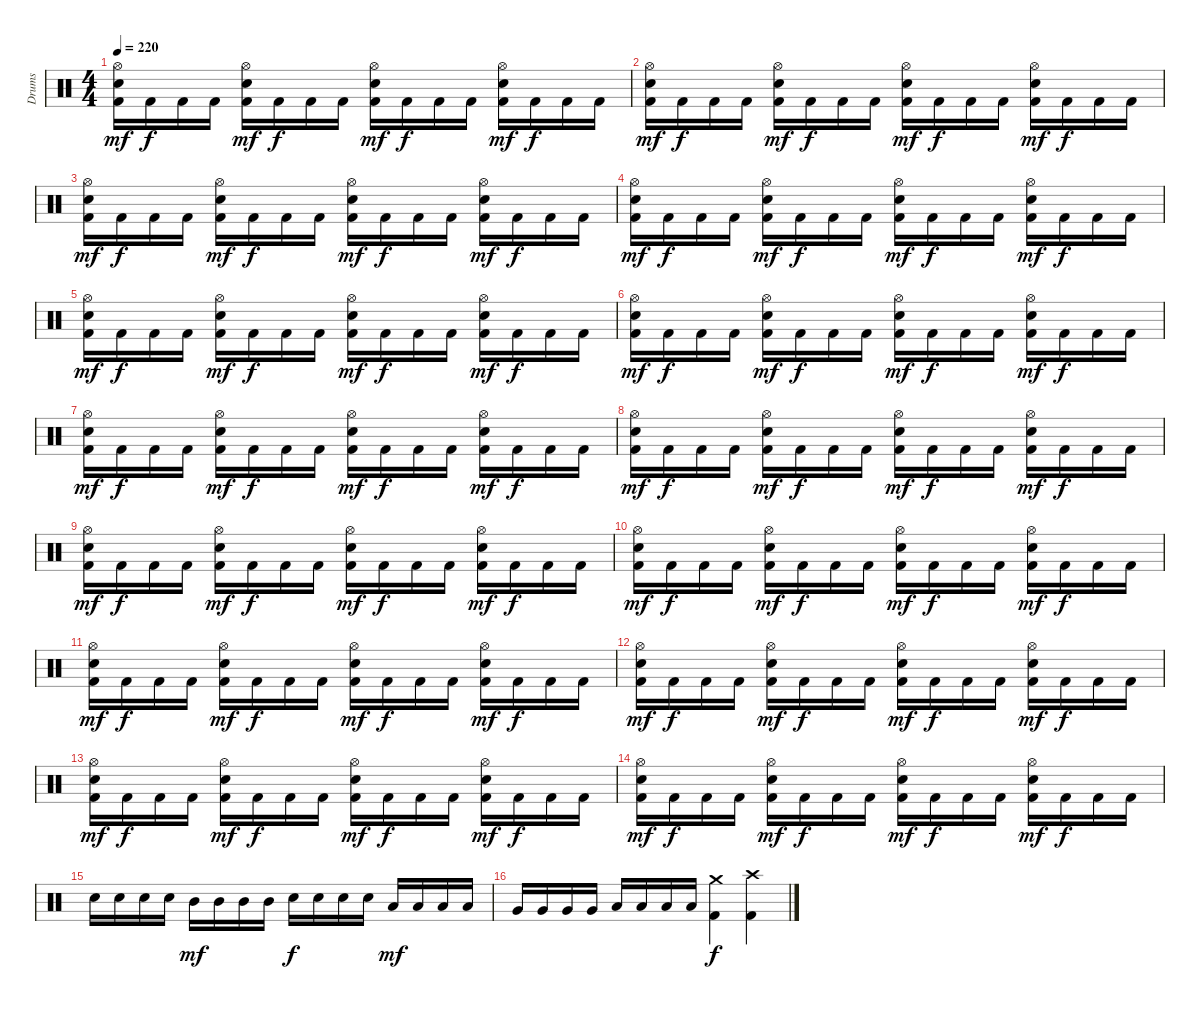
\track ("Drums" "Drums") {instrument percussion}
\staff {score}
\articulation defaults
\ts (4 4)
\tempo 220
\clef neutral
\ks c
("Hi-Hat (open)" "Electric Snare (hit)" "Kick (hit) 2").16{dy mf} "Kick (hit) 2".16{dy f} "Kick (hit) 2".16 "Kick (hit) 2".16 ("Hi-Hat (open)" "Electric Snare (hit)" "Kick (hit) 2").16{dy mf} "Kick (hit) 2".16{dy f} "Kick (hit) 2".16 "Kick (hit) 2".16 ("Hi-Hat (open)" "Electric Snare (hit)" "Kick (hit) 2").16{dy mf} "Kick (hit) 2".16{dy f} "Kick (hit) 2".16 "Kick (hit) 2".16 ("Hi-Hat (open)" "Electric Snare (hit)" "Kick (hit) 2").16{dy mf} "Kick (hit) 2".16{dy f} "Kick (hit) 2".16 "Kick (hit) 2".16 |
("Hi-Hat (open)" "Electric Snare (hit)" "Kick (hit) 2").16{dy mf} "Kick (hit) 2".16{dy f} "Kick (hit) 2".16 "Kick (hit) 2".16 ("Hi-Hat (open)" "Electric Snare (hit)" "Kick (hit) 2").16{dy mf} "Kick (hit) 2".16{dy f} "Kick (hit) 2".16 "Kick (hit) 2".16 ("Hi-Hat (open)" "Electric Snare (hit)" "Kick (hit) 2").16{dy mf} "Kick (hit) 2".16{dy f} "Kick (hit) 2".16 "Kick (hit) 2".16 ("Hi-Hat (open)" "Electric Snare (hit)" "Kick (hit) 2").16{dy mf} "Kick (hit) 2".16{dy f} "Kick (hit) 2".16 "Kick (hit) 2".16 |
("Hi-Hat (open)" "Electric Snare (hit)" "Kick (hit) 2").16{dy mf} "Kick (hit) 2".16{dy f} "Kick (hit) 2".16 "Kick (hit) 2".16 ("Hi-Hat (open)" "Electric Snare (hit)" "Kick (hit) 2").16{dy mf} "Kick (hit) 2".16{dy f} "Kick (hit) 2".16 "Kick (hit) 2".16 ("Hi-Hat (open)" "Electric Snare (hit)" "Kick (hit) 2").16{dy mf} "Kick (hit) 2".16{dy f} "Kick (hit) 2".16 "Kick (hit) 2".16 ("Hi-Hat (open)" "Electric Snare (hit)" "Kick (hit) 2").16{dy mf} "Kick (hit) 2".16{dy f} "Kick (hit) 2".16 "Kick (hit) 2".16 |
("Hi-Hat (open)" "Electric Snare (hit)" "Kick (hit) 2").16{dy mf} "Kick (hit) 2".16{dy f} "Kick (hit) 2".16 "Kick (hit) 2".16 ("Hi-Hat (open)" "Electric Snare (hit)" "Kick (hit) 2").16{dy mf} "Kick (hit) 2".16{dy f} "Kick (hit) 2".16 "Kick (hit) 2".16 ("Hi-Hat (open)" "Electric Snare (hit)" "Kick (hit) 2").16{dy mf} "Kick (hit) 2".16{dy f} "Kick (hit) 2".16 "Kick (hit) 2".16 ("Hi-Hat (open)" "Electric Snare (hit)" "Kick (hit) 2").16{dy mf} "Kick (hit) 2".16{dy f} "Kick (hit) 2".16 "Kick (hit) 2".16 |
("Hi-Hat (open)" "Electric Snare (hit)" "Kick (hit) 2").16{dy mf} "Kick (hit) 2".16{dy f} "Kick (hit) 2".16 "Kick (hit) 2".16 ("Hi-Hat (open)" "Electric Snare (hit)" "Kick (hit) 2").16{dy mf} "Kick (hit) 2".16{dy f} "Kick (hit) 2".16 "Kick (hit) 2".16 ("Hi-Hat (open)" "Electric Snare (hit)" "Kick (hit) 2").16{dy mf} "Kick (hit) 2".16{dy f} "Kick (hit) 2".16 "Kick (hit) 2".16 ("Hi-Hat (open)" "Electric Snare (hit)" "Kick (hit) 2").16{dy mf} "Kick (hit) 2".16{dy f} "Kick (hit) 2".16 "Kick (hit) 2".16 |
("Hi-Hat (open)" "Electric Snare (hit)" "Kick (hit) 2").16{dy mf} "Kick (hit) 2".16{dy f} "Kick (hit) 2".16 "Kick (hit) 2".16 ("Hi-Hat (open)" "Electric Snare (hit)" "Kick (hit) 2").16{dy mf} "Kick (hit) 2".16{dy f} "Kick (hit) 2".16 "Kick (hit) 2".16 ("Hi-Hat (open)" "Electric Snare (hit)" "Kick (hit) 2").16{dy mf} "Kick (hit) 2".16{dy f} "Kick (hit) 2".16 "Kick (hit) 2".16 ("Hi-Hat (open)" "Electric Snare (hit)" "Kick (hit) 2").16{dy mf} "Kick (hit) 2".16{dy f} "Kick (hit) 2".16 "Kick (hit) 2".16 |
("Hi-Hat (open)" "Electric Snare (hit)" "Kick (hit) 2").16{dy mf} "Kick (hit) 2".16{dy f} "Kick (hit) 2".16 "Kick (hit) 2".16 ("Hi-Hat (open)" "Electric Snare (hit)" "Kick (hit) 2").16{dy mf} "Kick (hit) 2".16{dy f} "Kick (hit) 2".16 "Kick (hit) 2".16 ("Hi-Hat (open)" "Electric Snare (hit)" "Kick (hit) 2").16{dy mf} "Kick (hit) 2".16{dy f} "Kick (hit) 2".16 "Kick (hit) 2".16 ("Hi-Hat (open)" "Electric Snare (hit)" "Kick (hit) 2").16{dy mf} "Kick (hit) 2".16{dy f} "Kick (hit) 2".16 "Kick (hit) 2".16 |
("Hi-Hat (open)" "Electric Snare (hit)" "Kick (hit) 2").16{dy mf} "Kick (hit) 2".16{dy f} "Kick (hit) 2".16 "Kick (hit) 2".16 ("Hi-Hat (open)" "Electric Snare (hit)" "Kick (hit) 2").16{dy mf} "Kick (hit) 2".16{dy f} "Kick (hit) 2".16 "Kick (hit) 2".16 ("Hi-Hat (open)" "Electric Snare (hit)" "Kick (hit) 2").16{dy mf} "Kick (hit) 2".16{dy f} "Kick (hit) 2".16 "Kick (hit) 2".16 ("Hi-Hat (open)" "Electric Snare (hit)" "Kick (hit) 2").16{dy mf} "Kick (hit) 2".16{dy f} "Kick (hit) 2".16 "Kick (hit) 2".16 |
("Hi-Hat (open)" "Electric Snare (hit)" "Kick (hit) 2").16{dy mf} "Kick (hit) 2".16{dy f} "Kick (hit) 2".16 "Kick (hit) 2".16 ("Hi-Hat (open)" "Electric Snare (hit)" "Kick (hit) 2").16{dy mf} "Kick (hit) 2".16{dy f} "Kick (hit) 2".16 "Kick (hit) 2".16 ("Hi-Hat (open)" "Electric Snare (hit)" "Kick (hit) 2").16{dy mf} "Kick (hit) 2".16{dy f} "Kick (hit) 2".16 "Kick (hit) 2".16 ("Hi-Hat (open)" "Electric Snare (hit)" "Kick (hit) 2").16{dy mf} "Kick (hit) 2".16{dy f} "Kick (hit) 2".16 "Kick (hit) 2".16 |
("Hi-Hat (open)" "Electric Snare (hit)" "Kick (hit) 2").16{dy mf} "Kick (hit) 2".16{dy f} "Kick (hit) 2".16 "Kick (hit) 2".16 ("Hi-Hat (open)" "Electric Snare (hit)" "Kick (hit) 2").16{dy mf} "Kick (hit) 2".16{dy f} "Kick (hit) 2".16 "Kick (hit) 2".16 ("Hi-Hat (open)" "Electric Snare (hit)" "Kick (hit) 2").16{dy mf} "Kick (hit) 2".16{dy f} "Kick (hit) 2".16 "Kick (hit) 2".16 ("Hi-Hat (open)" "Electric Snare (hit)" "Kick (hit) 2").16{dy mf} "Kick (hit) 2".16{dy f} "Kick (hit) 2".16 "Kick (hit) 2".16 |
("Hi-Hat (open)" "Electric Snare (hit)" "Kick (hit) 2").16{dy mf} "Kick (hit) 2".16{dy f} "Kick (hit) 2".16 "Kick (hit) 2".16 ("Hi-Hat (open)" "Electric Snare (hit)" "Kick (hit) 2").16{dy mf} "Kick (hit) 2".16{dy f} "Kick (hit) 2".16 "Kick (hit) 2".16 ("Hi-Hat (open)" "Electric Snare (hit)" "Kick (hit) 2").16{dy mf} "Kick (hit) 2".16{dy f} "Kick (hit) 2".16 "Kick (hit) 2".16 ("Hi-Hat (open)" "Electric Snare (hit)" "Kick (hit) 2").16{dy mf} "Kick (hit) 2".16{dy f} "Kick (hit) 2".16 "Kick (hit) 2".16 |
("Hi-Hat (open)" "Electric Snare (hit)" "Kick (hit) 2").16{dy mf} "Kick (hit) 2".16{dy f} "Kick (hit) 2".16 "Kick (hit) 2".16 ("Hi-Hat (open)" "Electric Snare (hit)" "Kick (hit) 2").16{dy mf} "Kick (hit) 2".16{dy f} "Kick (hit) 2".16 "Kick (hit) 2".16 ("Hi-Hat (open)" "Electric Snare (hit)" "Kick (hit) 2").16{dy mf} "Kick (hit) 2".16{dy f} "Kick (hit) 2".16 "Kick (hit) 2".16 ("Hi-Hat (open)" "Electric Snare (hit)" "Kick (hit) 2").16{dy mf} "Kick (hit) 2".16{dy f} "Kick (hit) 2".16 "Kick (hit) 2".16 |
("Hi-Hat (open)" "Electric Snare (hit)" "Kick (hit) 2").16{dy mf} "Kick (hit) 2".16{dy f} "Kick (hit) 2".16 "Kick (hit) 2".16 ("Hi-Hat (open)" "Electric Snare (hit)" "Kick (hit) 2").16{dy mf} "Kick (hit) 2".16{dy f} "Kick (hit) 2".16 "Kick (hit) 2".16 ("Hi-Hat (open)" "Electric Snare (hit)" "Kick (hit) 2").16{dy mf} "Kick (hit) 2".16{dy f} "Kick (hit) 2".16 "Kick (hit) 2".16 ("Hi-Hat (open)" "Electric Snare (hit)" "Kick (hit) 2").16{dy mf} "Kick (hit) 2".16{dy f} "Kick (hit) 2".16 "Kick (hit) 2".16 |
("Hi-Hat (open)" "Electric Snare (hit)" "Kick (hit) 2").16{dy mf} "Kick (hit) 2".16{dy f} "Kick (hit) 2".16 "Kick (hit) 2".16 ("Hi-Hat (open)" "Electric Snare (hit)" "Kick (hit) 2").16{dy mf} "Kick (hit) 2".16{dy f} "Kick (hit) 2".16 "Kick (hit) 2".16 ("Hi-Hat (open)" "Electric Snare (hit)" "Kick (hit) 2").16{dy mf} "Kick (hit) 2".16{dy f} "Kick (hit) 2".16 "Kick (hit) 2".16 ("Hi-Hat (open)" "Electric Snare (hit)" "Kick (hit) 2").16{dy mf} "Kick (hit) 2".16{dy f} "Kick (hit) 2".16 "Kick (hit) 2".16 |
"Electric Snare (hit)".16 "Electric Snare (hit)".16 "Electric Snare (hit)".16 "Electric Snare (hit)".16 "Mid Tom (hit)".16{dy mf} "Mid Tom (hit)".16 "Mid Tom (hit)".16 "Mid Tom (hit)".16 "Electric Snare (hit)".16{dy f} "Electric Snare (hit)".16 "Electric Snare (hit)".16 "Electric Snare (hit)".16 "Low Tom (hit)".16{dy mf} "Low Tom (hit)".16 "Low Tom (hit)".16 "Low Tom (hit)".16 |
"Very Low Tom (hit)".16 "Very Low Tom (hit)".16 "Very Low Tom (hit)".16 "Very Low Tom (hit)".16 "Low Floor Tom (hit)".16 "Low Floor Tom (hit)".16 "Low Floor Tom (hit)".16 "Low Floor Tom (hit)".16 ("Crash medium (hit)" "Kick (hit) 2").4{dy f} ("Crash high (hit)" "Kick (hit) 2").4
